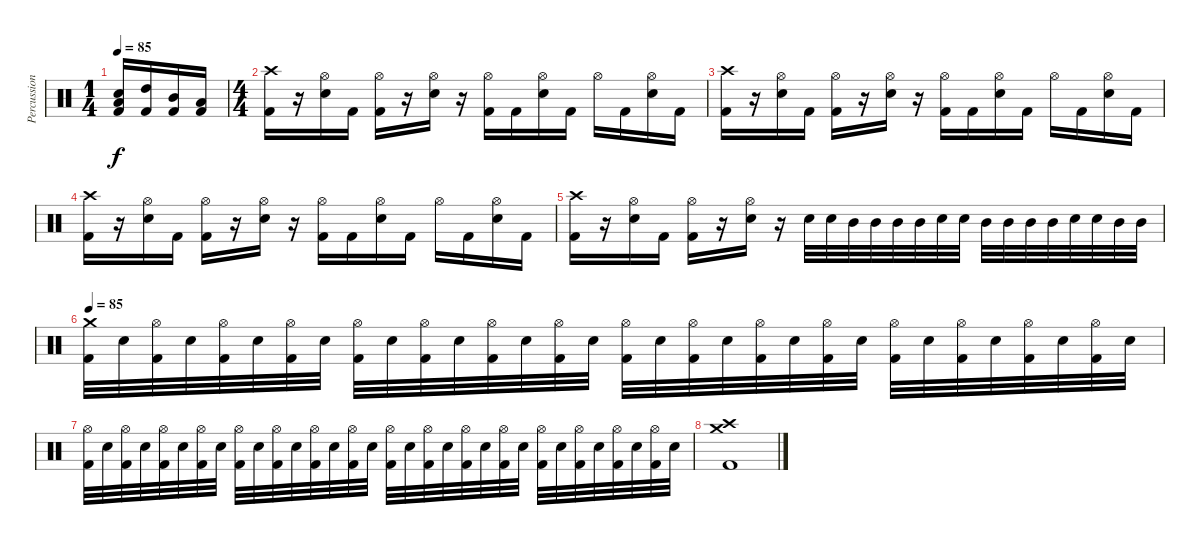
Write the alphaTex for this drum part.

\track ("Percussion" "Percussion") {instrument percussion}
\staff {score}
\articulation defaults
\ts (1 4)
\tempo 85
\clef neutral
\ks c
("Low Floor Tom (hit)" "Electric Snare (hit)" "Kick (hit) 2").16{dy f} ("High Tom (hit)" "Kick (hit) 2").16 ("Mid Tom (hit)" "Kick (hit) 2").16 ("Low Tom (hit)" "Kick (hit) 2").16 |
\ts (4 4)
("Crash high (hit)" "Kick (hit) 2").16 r.16 ("Hi-Hat (open)" "Electric Snare (hit)").16 "Kick (hit) 2".16 ("Hi-Hat (open)" "Kick (hit) 2").16 r.16 ("Hi-Hat (open)" "Electric Snare (hit)").16 r.16 ("Hi-Hat (open)" "Kick (hit) 2").16 "Kick (hit) 2".16 ("Hi-Hat (open)" "Electric Snare (hit)").16 "Kick (hit) 2".16 "Hi-Hat (open)".16 "Kick (hit) 2".16 ("Hi-Hat (open)" "Electric Snare (hit)").16 "Kick (hit) 2".16 |
("Crash high (hit)" "Kick (hit) 2").16 r.16 ("Hi-Hat (open)" "Electric Snare (hit)").16 "Kick (hit) 2".16 ("Hi-Hat (open)" "Kick (hit) 2").16 r.16 ("Hi-Hat (open)" "Electric Snare (hit)").16 r.16 ("Hi-Hat (open)" "Kick (hit) 2").16 "Kick (hit) 2".16 ("Hi-Hat (open)" "Electric Snare (hit)").16 "Kick (hit) 2".16 "Hi-Hat (open)".16 "Kick (hit) 2".16 ("Hi-Hat (open)" "Electric Snare (hit)").16 "Kick (hit) 2".16 |
("Crash high (hit)" "Kick (hit) 2").16 r.16 ("Hi-Hat (open)" "Electric Snare (hit)").16 "Kick (hit) 2".16 ("Hi-Hat (open)" "Kick (hit) 2").16 r.16 ("Hi-Hat (open)" "Electric Snare (hit)").16 r.16 ("Hi-Hat (open)" "Kick (hit) 2").16 "Kick (hit) 2".16 ("Hi-Hat (open)" "Electric Snare (hit)").16 "Kick (hit) 2".16 "Hi-Hat (open)".16 "Kick (hit) 2".16 ("Hi-Hat (open)" "Electric Snare (hit)").16 "Kick (hit) 2".16 |
("Crash high (hit)" "Kick (hit) 2").16 r.16 ("Hi-Hat (open)" "Electric Snare (hit)").16 "Kick (hit) 2".16 ("Hi-Hat (open)" "Kick (hit) 2").16 r.16 ("Hi-Hat (open)" "Electric Snare (hit)").16 r.16 "Electric Snare (hit)".32 "Electric Snare (hit)".32 "Mid Tom (hit)".32 "Mid Tom (hit)".32 "Mid Tom (hit)".32 "Mid Tom (hit)".32 "Electric Snare (hit)".32 "Electric Snare (hit)".32 "Mid Tom (hit)".32 "Mid Tom (hit)".32 "Mid Tom (hit)".32 "Mid Tom (hit)".32 "Electric Snare (hit)".32 "Electric Snare (hit)".32 "Mid Tom (hit)".32 "Mid Tom (hit)".32 |
\tempo 85
("Crash medium (hit)" "Kick (hit) 2").32 "Electric Snare (hit)".32 ("Hi-Hat (open)" "Kick (hit) 2").32 "Electric Snare (hit)".32 ("Hi-Hat (open)" "Kick (hit) 2").32 "Electric Snare (hit)".32 ("Hi-Hat (open)" "Kick (hit) 2").32 "Electric Snare (hit)".32 ("Hi-Hat (open)" "Kick (hit) 2").32 "Electric Snare (hit)".32 ("Hi-Hat (open)" "Kick (hit) 2").32 "Electric Snare (hit)".32 ("Hi-Hat (open)" "Kick (hit) 2").32 "Electric Snare (hit)".32 ("Hi-Hat (open)" "Kick (hit) 2").32 "Electric Snare (hit)".32 ("Hi-Hat (open)" "Kick (hit) 2").32 "Electric Snare (hit)".32 ("Hi-Hat (open)" "Kick (hit) 2").32 "Electric Snare (hit)".32 ("Hi-Hat (open)" "Kick (hit) 2").32 "Electric Snare (hit)".32 ("Hi-Hat (open)" "Kick (hit) 2").32 "Electric Snare (hit)".32 ("Hi-Hat (open)" "Kick (hit) 2").32 "Electric Snare (hit)".32 ("Hi-Hat (open)" "Kick (hit) 2").32 "Electric Snare (hit)".32 ("Hi-Hat (open)" "Kick (hit) 2").32 "Electric Snare (hit)".32 ("Hi-Hat (open)" "Kick (hit) 2").32 "Electric Snare (hit)".32 |
("Hi-Hat (open)" "Kick (hit) 2").32 "Electric Snare (hit)".32 ("Hi-Hat (open)" "Kick (hit) 2").32 "Electric Snare (hit)".32 ("Hi-Hat (open)" "Kick (hit) 2").32 "Electric Snare (hit)".32 ("Hi-Hat (open)" "Kick (hit) 2").32 "Electric Snare (hit)".32 ("Hi-Hat (open)" "Kick (hit) 2").32 "Electric Snare (hit)".32 ("Hi-Hat (open)" "Kick (hit) 2").32 "Electric Snare (hit)".32 ("Hi-Hat (open)" "Kick (hit) 2").32 "Electric Snare (hit)".32 ("Hi-Hat (open)" "Kick (hit) 2").32 "Electric Snare (hit)".32 ("Hi-Hat (open)" "Kick (hit) 2").32 "Electric Snare (hit)".32 ("Hi-Hat (open)" "Kick (hit) 2").32 "Electric Snare (hit)".32 ("Hi-Hat (open)" "Kick (hit) 2").32 "Electric Snare (hit)".32 ("Hi-Hat (open)" "Kick (hit) 2").32 "Electric Snare (hit)".32 ("Hi-Hat (open)" "Kick (hit) 2").32 "Electric Snare (hit)".32 ("Hi-Hat (open)" "Kick (hit) 2").32 "Electric Snare (hit)".32 ("Hi-Hat (open)" "Kick (hit) 2").32 "Electric Snare (hit)".32 ("Hi-Hat (open)" "Kick (hit) 2").32 "Electric Snare (hit)".32 |
("Crash high (hit)" "Crash medium (hit)" "Kick (hit) 2").1
